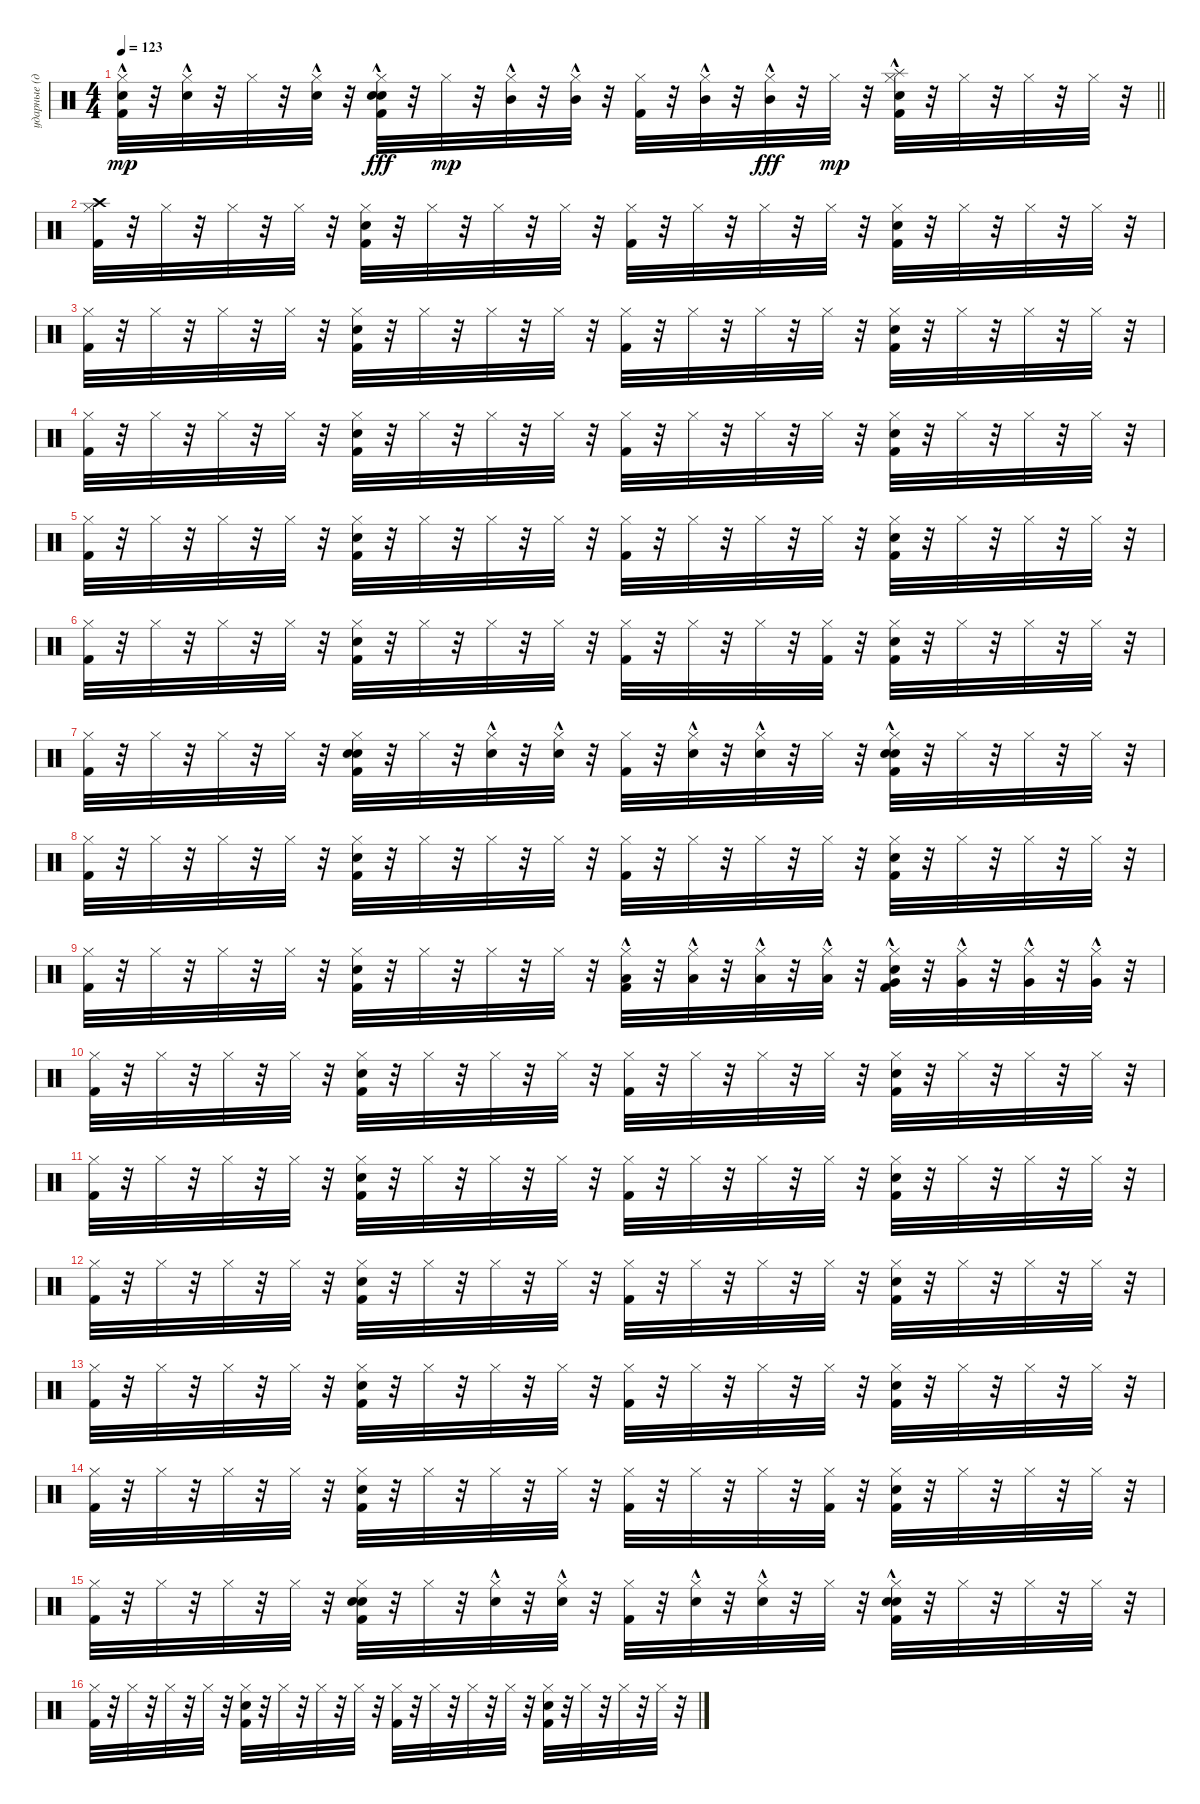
\track ("ударные (драм-машина)" "ударные (д") {instrument percussion}
\staff {score}
\articulation defaults
\ts (4 4)
\tempo 123
\clef neutral
\barLineRight lightlight
\ks c
("Hand Clap (hit)"{hac} "Kick (hit) 2" "Hi-Hat (closed)").32{dy mp} r.32 ("Hand Clap (hit)"{hac} "Hi-Hat (closed)").32 r.32 "Hi-Hat (closed)".32 r.32 ("Hand Clap (hit)"{hac} "Hi-Hat (closed)").32 r.32 ("Kick (hit) 2" "Snare (hit) 2" "Hi-Hat (closed)" "Hand Clap (hit)"{hac}).32{dy fff} r.32 "Hi-Hat (closed)".32{dy mp} r.32 ("Mid Tom (hit)"{hac} "Hi-Hat (closed)").32 r.32 ("Mid Tom (hit)"{hac} "Hi-Hat (closed)").32 r.32 ("Kick (hit) 2" "Hi-Hat (closed)").32 r.32 ("Mid Tom (hit)"{hac} "Hi-Hat (closed)").32 r.32 ("Hi-Hat (closed)" "Mid Tom (hit)"{hac}).32{dy fff} r.32 "Hi-Hat (closed)".32{dy mp} r.32 ("Snare (hit) 2" "Kick (hit) 2" "Splash (hit)"{hac} "Hi-Hat (closed)").32 r.32 "Hi-Hat (closed)".32 r.32 "Hi-Hat (closed)".32 r.32 "Hi-Hat (closed)".32 r.32 |
("Crash high (hit)" "Kick (hit) 2" "Hi-Hat (closed)").32 r.32 "Hi-Hat (closed)".32 r.32 "Hi-Hat (closed)".32 r.32 "Hi-Hat (closed)".32 r.32 ("Kick (hit) 2" "Snare (hit) 2" "Hi-Hat (closed)").32 r.32 "Hi-Hat (closed)".32 r.32 "Hi-Hat (closed)".32 r.32 "Hi-Hat (closed)".32 r.32 ("Kick (hit) 2" "Hi-Hat (closed)").32 r.32 "Hi-Hat (closed)".32 r.32 "Hi-Hat (closed)".32 r.32 "Hi-Hat (closed)".32 r.32 ("Kick (hit) 2" "Snare (hit) 2" "Hi-Hat (closed)").32 r.32 "Hi-Hat (closed)".32 r.32 "Hi-Hat (closed)".32 r.32 "Hi-Hat (closed)".32 r.32 |
("Kick (hit) 2" "Hi-Hat (closed)").32 r.32 "Hi-Hat (closed)".32 r.32 "Hi-Hat (closed)".32 r.32 "Hi-Hat (closed)".32 r.32 ("Kick (hit) 2" "Snare (hit) 2" "Hi-Hat (closed)").32 r.32 "Hi-Hat (closed)".32 r.32 "Hi-Hat (closed)".32 r.32 "Hi-Hat (closed)".32 r.32 ("Kick (hit) 2" "Hi-Hat (closed)").32 r.32 "Hi-Hat (closed)".32 r.32 "Hi-Hat (closed)".32 r.32 "Hi-Hat (closed)".32 r.32 ("Kick (hit) 2" "Snare (hit) 2" "Hi-Hat (closed)").32 r.32 "Hi-Hat (closed)".32 r.32 "Hi-Hat (closed)".32 r.32 "Hi-Hat (closed)".32 r.32 |
("Kick (hit) 2" "Hi-Hat (closed)").32 r.32 "Hi-Hat (closed)".32 r.32 "Hi-Hat (closed)".32 r.32 "Hi-Hat (closed)".32 r.32 ("Kick (hit) 2" "Snare (hit) 2" "Hi-Hat (closed)").32 r.32 "Hi-Hat (closed)".32 r.32 "Hi-Hat (closed)".32 r.32 "Hi-Hat (closed)".32 r.32 ("Kick (hit) 2" "Hi-Hat (closed)").32 r.32 "Hi-Hat (closed)".32 r.32 "Hi-Hat (closed)".32 r.32 "Hi-Hat (closed)".32 r.32 ("Kick (hit) 2" "Snare (hit) 2" "Hi-Hat (closed)").32 r.32 "Hi-Hat (closed)".32 r.32 "Hi-Hat (closed)".32 r.32 "Hi-Hat (closed)".32 r.32 |
("Kick (hit) 2" "Hi-Hat (closed)").32 r.32 "Hi-Hat (closed)".32 r.32 "Hi-Hat (closed)".32 r.32 "Hi-Hat (closed)".32 r.32 ("Kick (hit) 2" "Snare (hit) 2" "Hi-Hat (closed)").32 r.32 "Hi-Hat (closed)".32 r.32 "Hi-Hat (closed)".32 r.32 "Hi-Hat (closed)".32 r.32 ("Kick (hit) 2" "Hi-Hat (closed)").32 r.32 "Hi-Hat (closed)".32 r.32 "Hi-Hat (closed)".32 r.32 "Hi-Hat (closed)".32 r.32 ("Kick (hit) 2" "Snare (hit) 2" "Hi-Hat (closed)").32 r.32 "Hi-Hat (closed)".32 r.32 "Hi-Hat (closed)".32 r.32 "Hi-Hat (closed)".32 r.32 |
("Kick (hit) 2" "Hi-Hat (closed)").32 r.32 "Hi-Hat (closed)".32 r.32 "Hi-Hat (closed)".32 r.32 "Hi-Hat (closed)".32 r.32 ("Kick (hit) 2" "Snare (hit) 2" "Hi-Hat (closed)").32 r.32 "Hi-Hat (closed)".32 r.32 "Hi-Hat (closed)".32 r.32 "Hi-Hat (closed)".32 r.32 ("Kick (hit) 2" "Hi-Hat (closed)").32 r.32 "Hi-Hat (closed)".32 r.32 "Hi-Hat (closed)".32 r.32 ("Kick (hit) 2" "Hi-Hat (closed)").32 r.32 ("Kick (hit) 2" "Snare (hit) 2" "Hi-Hat (closed)").32 r.32 "Hi-Hat (closed)".32 r.32 "Hi-Hat (closed)".32 r.32 "Hi-Hat (closed)".32 r.32 |
("Kick (hit) 2" "Hi-Hat (closed)").32 r.32 "Hi-Hat (closed)".32 r.32 "Hi-Hat (closed)".32 r.32 "Hi-Hat (closed)".32 r.32 ("Hand Clap (hit)" "Kick (hit) 2" "Snare (hit) 2" "Hi-Hat (closed)").32 r.32 "Hi-Hat (closed)".32 r.32 ("Hand Clap (hit)"{hac} "Hi-Hat (closed)").32 r.32 ("Hand Clap (hit)"{hac} "Hi-Hat (closed)").32 r.32 ("Kick (hit) 2" "Hi-Hat (closed)").32 r.32 ("Hand Clap (hit)"{hac} "Hi-Hat (closed)").32 r.32 ("Hand Clap (hit)"{hac} "Hi-Hat (closed)").32 r.32 "Hi-Hat (closed)".32 r.32 ("Kick (hit) 2" "Snare (hit) 2"{hac} "Hi-Hat (closed)" "Hand Clap (hit)").32 r.32 "Hi-Hat (closed)".32 r.32 "Hi-Hat (closed)".32 r.32 "Hi-Hat (closed)".32 r.32 |
("Kick (hit) 2" "Hi-Hat (closed)").32 r.32 "Hi-Hat (closed)".32 r.32 "Hi-Hat (closed)".32 r.32 "Hi-Hat (closed)".32 r.32 ("Kick (hit) 2" "Snare (hit) 2" "Hi-Hat (closed)").32 r.32 "Hi-Hat (closed)".32 r.32 "Hi-Hat (closed)".32 r.32 "Hi-Hat (closed)".32 r.32 ("Kick (hit) 2" "Hi-Hat (closed)").32 r.32 "Hi-Hat (closed)".32 r.32 "Hi-Hat (closed)".32 r.32 "Hi-Hat (closed)".32 r.32 ("Kick (hit) 2" "Snare (hit) 2" "Hi-Hat (closed)").32 r.32 "Hi-Hat (closed)".32 r.32 "Hi-Hat (closed)".32 r.32 "Hi-Hat (closed)".32 r.32 |
("Kick (hit) 2" "Hi-Hat (closed)").32 r.32 "Hi-Hat (closed)".32 r.32 "Hi-Hat (closed)".32 r.32 "Hi-Hat (closed)".32 r.32 ("Kick (hit) 2" "Snare (hit) 2" "Hi-Hat (closed)").32 r.32 "Hi-Hat (closed)".32 r.32 "Hi-Hat (closed)".32 r.32 "Hi-Hat (closed)".32 r.32 ("Low Tom (hit)"{hac} "Kick (hit) 2" "Hi-Hat (closed)").32 r.32 ("Low Tom (hit)"{hac} "Hi-Hat (closed)").32 r.32 ("Low Tom (hit)"{hac} "Hi-Hat (closed)").32 r.32 ("Low Tom (hit)"{hac} "Hi-Hat (closed)").32 r.32 ("Very Low Tom (hit)"{hac} "Kick (hit) 2" "Snare (hit) 2" "Hi-Hat (closed)").32 r.32 ("Very Low Tom (hit)"{hac} "Hi-Hat (closed)").32 r.32 ("Very Low Tom (hit)"{hac} "Hi-Hat (closed)").32 r.32 ("Very Low Tom (hit)"{hac} "Hi-Hat (closed)").32 r.32 |
("Kick (hit) 2" "Hi-Hat (closed)").32 r.32 "Hi-Hat (closed)".32 r.32 "Hi-Hat (closed)".32 r.32 "Hi-Hat (closed)".32 r.32 ("Kick (hit) 2" "Snare (hit) 2" "Hi-Hat (closed)").32 r.32 "Hi-Hat (closed)".32 r.32 "Hi-Hat (closed)".32 r.32 "Hi-Hat (closed)".32 r.32 ("Kick (hit) 2" "Hi-Hat (closed)").32 r.32 "Hi-Hat (closed)".32 r.32 "Hi-Hat (closed)".32 r.32 "Hi-Hat (closed)".32 r.32 ("Kick (hit) 2" "Snare (hit) 2" "Hi-Hat (closed)").32 r.32 "Hi-Hat (closed)".32 r.32 "Hi-Hat (closed)".32 r.32 "Hi-Hat (closed)".32 r.32 |
("Kick (hit) 2" "Hi-Hat (closed)").32 r.32 "Hi-Hat (closed)".32 r.32 "Hi-Hat (closed)".32 r.32 "Hi-Hat (closed)".32 r.32 ("Kick (hit) 2" "Snare (hit) 2" "Hi-Hat (closed)").32 r.32 "Hi-Hat (closed)".32 r.32 "Hi-Hat (closed)".32 r.32 "Hi-Hat (closed)".32 r.32 ("Kick (hit) 2" "Hi-Hat (closed)").32 r.32 "Hi-Hat (closed)".32 r.32 "Hi-Hat (closed)".32 r.32 "Hi-Hat (closed)".32 r.32 ("Kick (hit) 2" "Snare (hit) 2" "Hi-Hat (closed)").32 r.32 "Hi-Hat (closed)".32 r.32 "Hi-Hat (closed)".32 r.32 "Hi-Hat (closed)".32 r.32 |
("Kick (hit) 2" "Hi-Hat (closed)").32 r.32 "Hi-Hat (closed)".32 r.32 "Hi-Hat (closed)".32 r.32 "Hi-Hat (closed)".32 r.32 ("Kick (hit) 2" "Snare (hit) 2" "Hi-Hat (closed)").32 r.32 "Hi-Hat (closed)".32 r.32 "Hi-Hat (closed)".32 r.32 "Hi-Hat (closed)".32 r.32 ("Kick (hit) 2" "Hi-Hat (closed)").32 r.32 "Hi-Hat (closed)".32 r.32 "Hi-Hat (closed)".32 r.32 "Hi-Hat (closed)".32 r.32 ("Kick (hit) 2" "Snare (hit) 2" "Hi-Hat (closed)").32 r.32 "Hi-Hat (closed)".32 r.32 "Hi-Hat (closed)".32 r.32 "Hi-Hat (closed)".32 r.32 |
("Kick (hit) 2" "Hi-Hat (closed)").32 r.32 "Hi-Hat (closed)".32 r.32 "Hi-Hat (closed)".32 r.32 "Hi-Hat (closed)".32 r.32 ("Kick (hit) 2" "Snare (hit) 2" "Hi-Hat (closed)").32 r.32 "Hi-Hat (closed)".32 r.32 "Hi-Hat (closed)".32 r.32 "Hi-Hat (closed)".32 r.32 ("Kick (hit) 2" "Hi-Hat (closed)").32 r.32 "Hi-Hat (closed)".32 r.32 "Hi-Hat (closed)".32 r.32 "Hi-Hat (closed)".32 r.32 ("Kick (hit) 2" "Snare (hit) 2" "Hi-Hat (closed)").32 r.32 "Hi-Hat (closed)".32 r.32 "Hi-Hat (closed)".32 r.32 "Hi-Hat (closed)".32 r.32 |
("Kick (hit) 2" "Hi-Hat (closed)").32 r.32 "Hi-Hat (closed)".32 r.32 "Hi-Hat (closed)".32 r.32 "Hi-Hat (closed)".32 r.32 ("Kick (hit) 2" "Snare (hit) 2" "Hi-Hat (closed)").32 r.32 "Hi-Hat (closed)".32 r.32 "Hi-Hat (closed)".32 r.32 "Hi-Hat (closed)".32 r.32 ("Kick (hit) 2" "Hi-Hat (closed)").32 r.32 "Hi-Hat (closed)".32 r.32 "Hi-Hat (closed)".32 r.32 ("Kick (hit) 2" "Hi-Hat (closed)").32 r.32 ("Kick (hit) 2" "Snare (hit) 2" "Hi-Hat (closed)").32 r.32 "Hi-Hat (closed)".32 r.32 "Hi-Hat (closed)".32 r.32 "Hi-Hat (closed)".32 r.32 |
("Kick (hit) 2" "Hi-Hat (closed)").32 r.32 "Hi-Hat (closed)".32 r.32 "Hi-Hat (closed)".32 r.32 "Hi-Hat (closed)".32 r.32 ("Hand Clap (hit)" "Kick (hit) 2" "Snare (hit) 2" "Hi-Hat (closed)").32 r.32 "Hi-Hat (closed)".32 r.32 ("Hand Clap (hit)"{hac} "Hi-Hat (closed)").32 r.32 ("Hand Clap (hit)"{hac} "Hi-Hat (closed)").32 r.32 ("Kick (hit) 2" "Hi-Hat (closed)").32 r.32 ("Hand Clap (hit)"{hac} "Hi-Hat (closed)").32 r.32 ("Hand Clap (hit)"{hac} "Hi-Hat (closed)").32 r.32 "Hi-Hat (closed)".32 r.32 ("Kick (hit) 2" "Snare (hit) 2"{hac} "Hi-Hat (closed)" "Hand Clap (hit)").32 r.32 "Hi-Hat (closed)".32 r.32 "Hi-Hat (closed)".32 r.32 "Hi-Hat (closed)".32 r.32 |
("Kick (hit) 2" "Hi-Hat (closed)").32 r.32 "Hi-Hat (closed)".32 r.32 "Hi-Hat (closed)".32 r.32 "Hi-Hat (closed)".32 r.32 ("Kick (hit) 2" "Snare (hit) 2" "Hi-Hat (closed)").32 r.32 "Hi-Hat (closed)".32 r.32 "Hi-Hat (closed)".32 r.32 "Hi-Hat (closed)".32 r.32 ("Kick (hit) 2" "Hi-Hat (closed)").32 r.32 "Hi-Hat (closed)".32 r.32 "Hi-Hat (closed)".32 r.32 "Hi-Hat (closed)".32 r.32 ("Kick (hit) 2" "Snare (hit) 2" "Hi-Hat (closed)").32 r.32 "Hi-Hat (closed)".32 r.32 "Hi-Hat (closed)".32 r.32 "Hi-Hat (closed)".32 r.32
